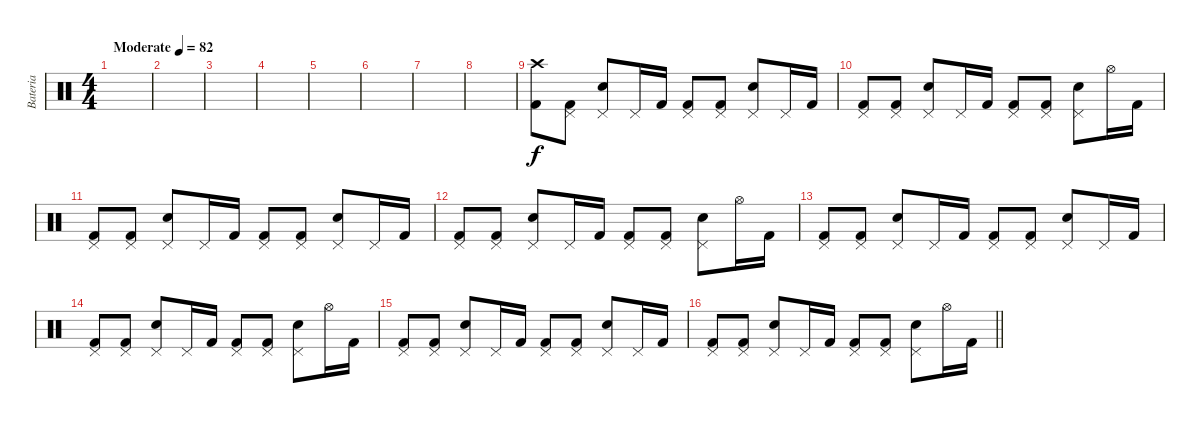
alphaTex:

\track ("Bateria" "Bateria") {instrument percussion}
\staff {score}
\articulation defaults
\ts (4 4)
\tempo (82 "Moderate")
\clef neutral
\ks c
|
|
|
|
|
|
|
|
("Crash high (hit)" "Kick (hit) 2").8 ("Pedal Hi-Hat (hit)" "Kick (hit) 2").8 ("Pedal Hi-Hat (hit)" "Snare (hit) 2").8 "Pedal Hi-Hat (hit)".16 "Kick (hit) 2".16 ("Pedal Hi-Hat (hit)" "Kick (hit) 2").8 ("Pedal Hi-Hat (hit)" "Kick (hit) 2").8 ("Pedal Hi-Hat (hit)" "Snare (hit) 2").8 "Pedal Hi-Hat (hit)".16 "Kick (hit) 2".16 |
("Pedal Hi-Hat (hit)" "Kick (hit) 2").8 ("Pedal Hi-Hat (hit)" "Kick (hit) 2").8 ("Pedal Hi-Hat (hit)" "Snare (hit) 2").8 "Pedal Hi-Hat (hit)".16 "Kick (hit) 2".16 ("Pedal Hi-Hat (hit)" "Kick (hit) 2").8 ("Pedal Hi-Hat (hit)" "Kick (hit) 2").8 ("Pedal Hi-Hat (hit)" "Snare (hit) 2").8 "Hi-Hat (open)".16 "Kick (hit) 2".16 |
("Pedal Hi-Hat (hit)" "Kick (hit) 2").8 ("Pedal Hi-Hat (hit)" "Kick (hit) 2").8 ("Pedal Hi-Hat (hit)" "Snare (hit) 2").8 "Pedal Hi-Hat (hit)".16 "Kick (hit) 2".16 ("Pedal Hi-Hat (hit)" "Kick (hit) 2").8 ("Pedal Hi-Hat (hit)" "Kick (hit) 2").8 ("Pedal Hi-Hat (hit)" "Snare (hit) 2").8 "Pedal Hi-Hat (hit)".16 "Kick (hit) 2".16 |
("Pedal Hi-Hat (hit)" "Kick (hit) 2").8 ("Pedal Hi-Hat (hit)" "Kick (hit) 2").8 ("Pedal Hi-Hat (hit)" "Snare (hit) 2").8 "Pedal Hi-Hat (hit)".16 "Kick (hit) 2".16 ("Pedal Hi-Hat (hit)" "Kick (hit) 2").8 ("Pedal Hi-Hat (hit)" "Kick (hit) 2").8 ("Pedal Hi-Hat (hit)" "Snare (hit) 2").8 "Hi-Hat (open)".16 "Kick (hit) 2".16 |
("Pedal Hi-Hat (hit)" "Kick (hit) 2").8 ("Pedal Hi-Hat (hit)" "Kick (hit) 2").8 ("Pedal Hi-Hat (hit)" "Snare (hit) 2").8 "Pedal Hi-Hat (hit)".16 "Kick (hit) 2".16 ("Pedal Hi-Hat (hit)" "Kick (hit) 2").8 ("Pedal Hi-Hat (hit)" "Kick (hit) 2").8 ("Pedal Hi-Hat (hit)" "Snare (hit) 2").8 "Pedal Hi-Hat (hit)".16 "Kick (hit) 2".16 |
("Pedal Hi-Hat (hit)" "Kick (hit) 2").8 ("Pedal Hi-Hat (hit)" "Kick (hit) 2").8 ("Pedal Hi-Hat (hit)" "Snare (hit) 2").8 "Pedal Hi-Hat (hit)".16 "Kick (hit) 2".16 ("Pedal Hi-Hat (hit)" "Kick (hit) 2").8 ("Pedal Hi-Hat (hit)" "Kick (hit) 2").8 ("Pedal Hi-Hat (hit)" "Snare (hit) 2").8 "Hi-Hat (open)".16 "Kick (hit) 2".16 |
("Pedal Hi-Hat (hit)" "Kick (hit) 2").8 ("Pedal Hi-Hat (hit)" "Kick (hit) 2").8 ("Pedal Hi-Hat (hit)" "Snare (hit) 2").8 "Pedal Hi-Hat (hit)".16 "Kick (hit) 2".16 ("Pedal Hi-Hat (hit)" "Kick (hit) 2").8 ("Pedal Hi-Hat (hit)" "Kick (hit) 2").8 ("Pedal Hi-Hat (hit)" "Snare (hit) 2").8 "Pedal Hi-Hat (hit)".16 "Kick (hit) 2".16 |
\barLineRight lightlight
("Pedal Hi-Hat (hit)" "Kick (hit) 2").8 ("Pedal Hi-Hat (hit)" "Kick (hit) 2").8 ("Pedal Hi-Hat (hit)" "Snare (hit) 2").8 "Pedal Hi-Hat (hit)".16 "Kick (hit) 2".16 ("Pedal Hi-Hat (hit)" "Kick (hit) 2").8 ("Pedal Hi-Hat (hit)" "Kick (hit) 2").8 ("Pedal Hi-Hat (hit)" "Snare (hit) 2").8 "Hi-Hat (open)".16 "Kick (hit) 2".16
